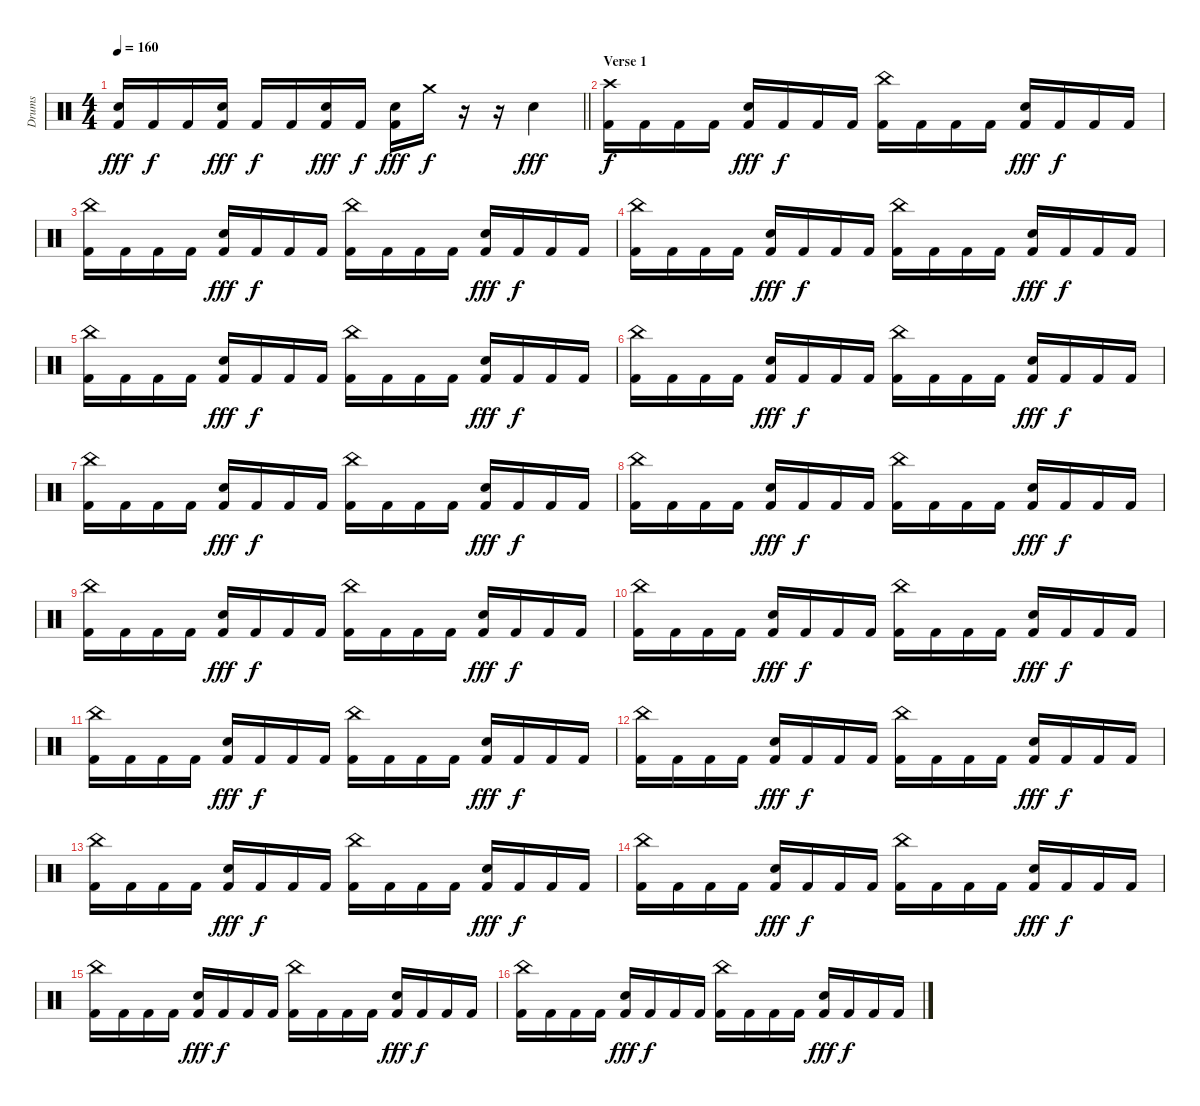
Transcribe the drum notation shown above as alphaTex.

\track ("Drums" "Drums") {instrument percussion}
\staff {score}
\articulation defaults
\ts (4 4)
\tempo 160
\clef neutral
\barLineRight lightlight
\ks c
("Electric Snare (hit)" "Kick (hit) 2").16{dy fff} "Kick (hit) 2".16{dy f} "Kick (hit) 2".16 ("Electric Snare (hit)" "Kick (hit) 2").16{dy fff} "Kick (hit) 2".16{dy f} "Kick (hit) 2".16 ("Electric Snare (hit)" "Kick (hit) 2").16{dy fff} "Kick (hit) 2".16{dy f} ("Electric Snare (hit)" "Kick (hit) 2").16{dy fff} "Crash medium (hit)".16{dy f} r.16{volume 0} r.16{volume 16} "Electric Snare (hit)".4{dy fff} |
\section ("" "Verse 1")
("Crash high (hit)" "Kick (hit) 2").16{dy f} "Kick (hit) 2".16 "Kick (hit) 2".16 "Kick (hit) 2".16 ("Electric Snare (hit)" "Kick (hit) 2").16{dy fff} "Kick (hit) 2".16{dy f} "Kick (hit) 2".16 "Kick (hit) 2".16 ("China (hit)" "Kick (hit) 2").16 "Kick (hit) 2".16 "Kick (hit) 2".16 "Kick (hit) 2".16 ("Electric Snare (hit)" "Kick (hit) 2").16{dy fff} "Kick (hit) 2".16{dy f} "Kick (hit) 2".16 "Kick (hit) 2".16 |
("China (hit)" "Kick (hit) 2").16 "Kick (hit) 2".16 "Kick (hit) 2".16 "Kick (hit) 2".16 ("Electric Snare (hit)" "Kick (hit) 2").16{dy fff} "Kick (hit) 2".16{dy f} "Kick (hit) 2".16 "Kick (hit) 2".16 ("China (hit)" "Kick (hit) 2").16 "Kick (hit) 2".16 "Kick (hit) 2".16 "Kick (hit) 2".16 ("Electric Snare (hit)" "Kick (hit) 2").16{dy fff} "Kick (hit) 2".16{dy f} "Kick (hit) 2".16 "Kick (hit) 2".16 |
("China (hit)" "Kick (hit) 2").16 "Kick (hit) 2".16 "Kick (hit) 2".16 "Kick (hit) 2".16 ("Electric Snare (hit)" "Kick (hit) 2").16{dy fff} "Kick (hit) 2".16{dy f} "Kick (hit) 2".16 "Kick (hit) 2".16 ("China (hit)" "Kick (hit) 2").16 "Kick (hit) 2".16 "Kick (hit) 2".16 "Kick (hit) 2".16 ("Electric Snare (hit)" "Kick (hit) 2").16{dy fff} "Kick (hit) 2".16{dy f} "Kick (hit) 2".16 "Kick (hit) 2".16 |
("China (hit)" "Kick (hit) 2").16 "Kick (hit) 2".16 "Kick (hit) 2".16 "Kick (hit) 2".16 ("Electric Snare (hit)" "Kick (hit) 2").16{dy fff} "Kick (hit) 2".16{dy f} "Kick (hit) 2".16 "Kick (hit) 2".16 ("China (hit)" "Kick (hit) 2").16 "Kick (hit) 2".16 "Kick (hit) 2".16 "Kick (hit) 2".16 ("Electric Snare (hit)" "Kick (hit) 2").16{dy fff} "Kick (hit) 2".16{dy f} "Kick (hit) 2".16 "Kick (hit) 2".16 |
("China (hit)" "Kick (hit) 2").16 "Kick (hit) 2".16 "Kick (hit) 2".16 "Kick (hit) 2".16 ("Electric Snare (hit)" "Kick (hit) 2").16{dy fff} "Kick (hit) 2".16{dy f} "Kick (hit) 2".16 "Kick (hit) 2".16 ("China (hit)" "Kick (hit) 2").16 "Kick (hit) 2".16 "Kick (hit) 2".16 "Kick (hit) 2".16 ("Electric Snare (hit)" "Kick (hit) 2").16{dy fff} "Kick (hit) 2".16{dy f} "Kick (hit) 2".16 "Kick (hit) 2".16 |
("China (hit)" "Kick (hit) 2").16 "Kick (hit) 2".16 "Kick (hit) 2".16 "Kick (hit) 2".16 ("Electric Snare (hit)" "Kick (hit) 2").16{dy fff} "Kick (hit) 2".16{dy f} "Kick (hit) 2".16 "Kick (hit) 2".16 ("China (hit)" "Kick (hit) 2").16 "Kick (hit) 2".16 "Kick (hit) 2".16 "Kick (hit) 2".16 ("Electric Snare (hit)" "Kick (hit) 2").16{dy fff} "Kick (hit) 2".16{dy f} "Kick (hit) 2".16 "Kick (hit) 2".16 |
("China (hit)" "Kick (hit) 2").16 "Kick (hit) 2".16 "Kick (hit) 2".16 "Kick (hit) 2".16 ("Electric Snare (hit)" "Kick (hit) 2").16{dy fff} "Kick (hit) 2".16{dy f} "Kick (hit) 2".16 "Kick (hit) 2".16 ("China (hit)" "Kick (hit) 2").16 "Kick (hit) 2".16 "Kick (hit) 2".16 "Kick (hit) 2".16 ("Electric Snare (hit)" "Kick (hit) 2").16{dy fff} "Kick (hit) 2".16{dy f} "Kick (hit) 2".16 "Kick (hit) 2".16 |
("China (hit)" "Kick (hit) 2").16 "Kick (hit) 2".16 "Kick (hit) 2".16 "Kick (hit) 2".16 ("Electric Snare (hit)" "Kick (hit) 2").16{dy fff} "Kick (hit) 2".16{dy f} "Kick (hit) 2".16 "Kick (hit) 2".16 ("China (hit)" "Kick (hit) 2").16 "Kick (hit) 2".16 "Kick (hit) 2".16 "Kick (hit) 2".16 ("Electric Snare (hit)" "Kick (hit) 2").16{dy fff} "Kick (hit) 2".16{dy f} "Kick (hit) 2".16 "Kick (hit) 2".16 |
("China (hit)" "Kick (hit) 2").16 "Kick (hit) 2".16 "Kick (hit) 2".16 "Kick (hit) 2".16 ("Electric Snare (hit)" "Kick (hit) 2").16{dy fff} "Kick (hit) 2".16{dy f} "Kick (hit) 2".16 "Kick (hit) 2".16 ("China (hit)" "Kick (hit) 2").16 "Kick (hit) 2".16 "Kick (hit) 2".16 "Kick (hit) 2".16 ("Electric Snare (hit)" "Kick (hit) 2").16{dy fff} "Kick (hit) 2".16{dy f} "Kick (hit) 2".16 "Kick (hit) 2".16 |
("China (hit)" "Kick (hit) 2").16 "Kick (hit) 2".16 "Kick (hit) 2".16 "Kick (hit) 2".16 ("Electric Snare (hit)" "Kick (hit) 2").16{dy fff} "Kick (hit) 2".16{dy f} "Kick (hit) 2".16 "Kick (hit) 2".16 ("China (hit)" "Kick (hit) 2").16 "Kick (hit) 2".16 "Kick (hit) 2".16 "Kick (hit) 2".16 ("Electric Snare (hit)" "Kick (hit) 2").16{dy fff} "Kick (hit) 2".16{dy f} "Kick (hit) 2".16 "Kick (hit) 2".16 |
("China (hit)" "Kick (hit) 2").16 "Kick (hit) 2".16 "Kick (hit) 2".16 "Kick (hit) 2".16 ("Electric Snare (hit)" "Kick (hit) 2").16{dy fff} "Kick (hit) 2".16{dy f} "Kick (hit) 2".16 "Kick (hit) 2".16 ("China (hit)" "Kick (hit) 2").16 "Kick (hit) 2".16 "Kick (hit) 2".16 "Kick (hit) 2".16 ("Electric Snare (hit)" "Kick (hit) 2").16{dy fff} "Kick (hit) 2".16{dy f} "Kick (hit) 2".16 "Kick (hit) 2".16 |
("China (hit)" "Kick (hit) 2").16 "Kick (hit) 2".16 "Kick (hit) 2".16 "Kick (hit) 2".16 ("Electric Snare (hit)" "Kick (hit) 2").16{dy fff} "Kick (hit) 2".16{dy f} "Kick (hit) 2".16 "Kick (hit) 2".16 ("China (hit)" "Kick (hit) 2").16 "Kick (hit) 2".16 "Kick (hit) 2".16 "Kick (hit) 2".16 ("Electric Snare (hit)" "Kick (hit) 2").16{dy fff} "Kick (hit) 2".16{dy f} "Kick (hit) 2".16 "Kick (hit) 2".16 |
("China (hit)" "Kick (hit) 2").16 "Kick (hit) 2".16 "Kick (hit) 2".16 "Kick (hit) 2".16 ("Electric Snare (hit)" "Kick (hit) 2").16{dy fff} "Kick (hit) 2".16{dy f} "Kick (hit) 2".16 "Kick (hit) 2".16 ("China (hit)" "Kick (hit) 2").16 "Kick (hit) 2".16 "Kick (hit) 2".16 "Kick (hit) 2".16 ("Electric Snare (hit)" "Kick (hit) 2").16{dy fff} "Kick (hit) 2".16{dy f} "Kick (hit) 2".16 "Kick (hit) 2".16 |
("China (hit)" "Kick (hit) 2").16 "Kick (hit) 2".16 "Kick (hit) 2".16 "Kick (hit) 2".16 ("Electric Snare (hit)" "Kick (hit) 2").16{dy fff} "Kick (hit) 2".16{dy f} "Kick (hit) 2".16 "Kick (hit) 2".16 ("China (hit)" "Kick (hit) 2").16 "Kick (hit) 2".16 "Kick (hit) 2".16 "Kick (hit) 2".16 ("Electric Snare (hit)" "Kick (hit) 2").16{dy fff} "Kick (hit) 2".16{dy f} "Kick (hit) 2".16 "Kick (hit) 2".16 |
("China (hit)" "Kick (hit) 2").16 "Kick (hit) 2".16 "Kick (hit) 2".16 "Kick (hit) 2".16 ("Electric Snare (hit)" "Kick (hit) 2").16{dy fff} "Kick (hit) 2".16{dy f} "Kick (hit) 2".16 "Kick (hit) 2".16 ("China (hit)" "Kick (hit) 2").16 "Kick (hit) 2".16 "Kick (hit) 2".16 "Kick (hit) 2".16 ("Electric Snare (hit)" "Kick (hit) 2").16{dy fff} "Kick (hit) 2".16{dy f} "Kick (hit) 2".16 "Kick (hit) 2".16
